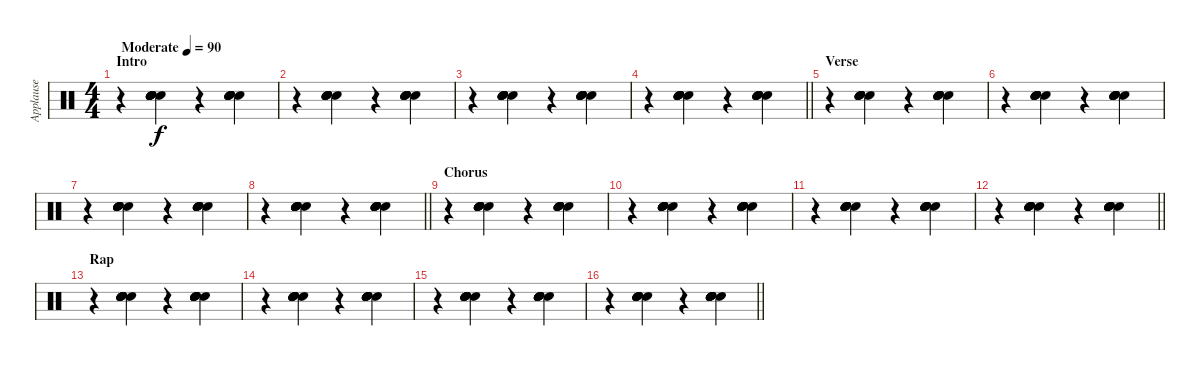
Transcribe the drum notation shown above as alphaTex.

\track ("Applause" "Applause") {instrument percussion}
\staff {score}
\articulation defaults
\ts (4 4)
\section ("" "Intro")
\tempo (90 "Moderate")
\clef neutral
\ks c
r.4{dy f} ("Hand Clap (hit)" "Hand Clap (hit)" "Hand Clap (hit)" "Hand Clap (hit)" "Hand Clap (hit)" "Hand Clap (hit)").4 r.4 ("Hand Clap (hit)" "Hand Clap (hit)" "Hand Clap (hit)" "Hand Clap (hit)" "Hand Clap (hit)" "Hand Clap (hit)").4 |
r.4 ("Hand Clap (hit)" "Hand Clap (hit)" "Hand Clap (hit)" "Hand Clap (hit)" "Hand Clap (hit)" "Hand Clap (hit)").4 r.4 ("Hand Clap (hit)" "Hand Clap (hit)" "Hand Clap (hit)" "Hand Clap (hit)" "Hand Clap (hit)" "Hand Clap (hit)").4 |
r.4 ("Hand Clap (hit)" "Hand Clap (hit)" "Hand Clap (hit)" "Hand Clap (hit)" "Hand Clap (hit)" "Hand Clap (hit)").4 r.4 ("Hand Clap (hit)" "Hand Clap (hit)" "Hand Clap (hit)" "Hand Clap (hit)" "Hand Clap (hit)" "Hand Clap (hit)").4 |
\barLineRight lightlight
r.4 ("Hand Clap (hit)" "Hand Clap (hit)" "Hand Clap (hit)" "Hand Clap (hit)" "Hand Clap (hit)" "Hand Clap (hit)").4 r.4 ("Hand Clap (hit)" "Hand Clap (hit)" "Hand Clap (hit)" "Hand Clap (hit)" "Hand Clap (hit)" "Hand Clap (hit)").4 |
\section ("" "Verse")
r.4 ("Hand Clap (hit)" "Hand Clap (hit)" "Hand Clap (hit)" "Hand Clap (hit)" "Hand Clap (hit)" "Hand Clap (hit)").4 r.4 ("Hand Clap (hit)" "Hand Clap (hit)" "Hand Clap (hit)" "Hand Clap (hit)" "Hand Clap (hit)" "Hand Clap (hit)").4 |
r.4 ("Hand Clap (hit)" "Hand Clap (hit)" "Hand Clap (hit)" "Hand Clap (hit)" "Hand Clap (hit)" "Hand Clap (hit)").4 r.4 ("Hand Clap (hit)" "Hand Clap (hit)" "Hand Clap (hit)" "Hand Clap (hit)" "Hand Clap (hit)" "Hand Clap (hit)").4 |
r.4 ("Hand Clap (hit)" "Hand Clap (hit)" "Hand Clap (hit)" "Hand Clap (hit)" "Hand Clap (hit)" "Hand Clap (hit)").4 r.4 ("Hand Clap (hit)" "Hand Clap (hit)" "Hand Clap (hit)" "Hand Clap (hit)" "Hand Clap (hit)" "Hand Clap (hit)").4 |
\barLineRight lightlight
r.4 ("Hand Clap (hit)" "Hand Clap (hit)" "Hand Clap (hit)" "Hand Clap (hit)" "Hand Clap (hit)" "Hand Clap (hit)").4 r.4 ("Hand Clap (hit)" "Hand Clap (hit)" "Hand Clap (hit)" "Hand Clap (hit)" "Hand Clap (hit)" "Hand Clap (hit)").4 |
\section ("" "Chorus")
r.4 ("Hand Clap (hit)" "Hand Clap (hit)" "Hand Clap (hit)" "Hand Clap (hit)" "Hand Clap (hit)" "Hand Clap (hit)").4 r.4 ("Hand Clap (hit)" "Hand Clap (hit)" "Hand Clap (hit)" "Hand Clap (hit)" "Hand Clap (hit)" "Hand Clap (hit)").4 |
r.4 ("Hand Clap (hit)" "Hand Clap (hit)" "Hand Clap (hit)" "Hand Clap (hit)" "Hand Clap (hit)" "Hand Clap (hit)").4 r.4 ("Hand Clap (hit)" "Hand Clap (hit)" "Hand Clap (hit)" "Hand Clap (hit)" "Hand Clap (hit)" "Hand Clap (hit)").4 |
r.4 ("Hand Clap (hit)" "Hand Clap (hit)" "Hand Clap (hit)" "Hand Clap (hit)" "Hand Clap (hit)" "Hand Clap (hit)").4 r.4 ("Hand Clap (hit)" "Hand Clap (hit)" "Hand Clap (hit)" "Hand Clap (hit)" "Hand Clap (hit)" "Hand Clap (hit)").4 |
\barLineRight lightlight
r.4 ("Hand Clap (hit)" "Hand Clap (hit)" "Hand Clap (hit)" "Hand Clap (hit)" "Hand Clap (hit)" "Hand Clap (hit)").4 r.4 ("Hand Clap (hit)" "Hand Clap (hit)" "Hand Clap (hit)" "Hand Clap (hit)" "Hand Clap (hit)" "Hand Clap (hit)").4 |
\section ("" "Rap")
r.4 ("Hand Clap (hit)" "Hand Clap (hit)" "Hand Clap (hit)" "Hand Clap (hit)" "Hand Clap (hit)" "Hand Clap (hit)").4 r.4 ("Hand Clap (hit)" "Hand Clap (hit)" "Hand Clap (hit)" "Hand Clap (hit)" "Hand Clap (hit)" "Hand Clap (hit)").4 |
r.4 ("Hand Clap (hit)" "Hand Clap (hit)" "Hand Clap (hit)" "Hand Clap (hit)" "Hand Clap (hit)" "Hand Clap (hit)").4 r.4 ("Hand Clap (hit)" "Hand Clap (hit)" "Hand Clap (hit)" "Hand Clap (hit)" "Hand Clap (hit)" "Hand Clap (hit)").4 |
r.4 ("Hand Clap (hit)" "Hand Clap (hit)" "Hand Clap (hit)" "Hand Clap (hit)" "Hand Clap (hit)" "Hand Clap (hit)").4 r.4 ("Hand Clap (hit)" "Hand Clap (hit)" "Hand Clap (hit)" "Hand Clap (hit)" "Hand Clap (hit)" "Hand Clap (hit)").4 |
\barLineRight lightlight
r.4 ("Hand Clap (hit)" "Hand Clap (hit)" "Hand Clap (hit)" "Hand Clap (hit)" "Hand Clap (hit)" "Hand Clap (hit)").4 r.4 ("Hand Clap (hit)" "Hand Clap (hit)" "Hand Clap (hit)" "Hand Clap (hit)" "Hand Clap (hit)" "Hand Clap (hit)").4
